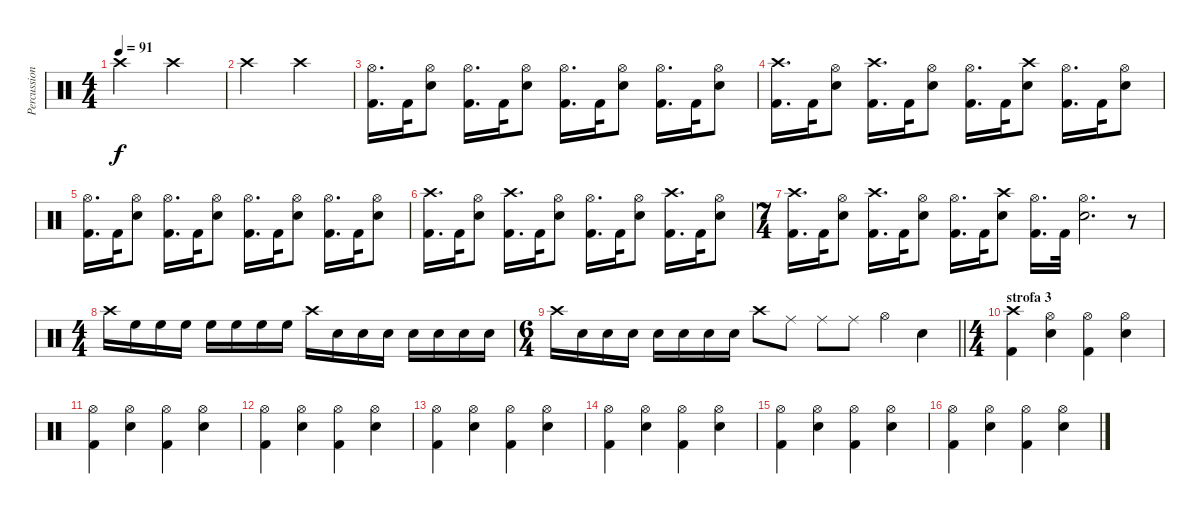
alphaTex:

\track ("Percussion" "Percussion") {instrument percussion}
\staff {score}
\articulation defaults
\ts (4 4)
\tempo 91
\clef neutral
\ks c "Crash high (hit)".2{dy f} "Crash high (hit)".2
|
"Crash high (hit)".2 "Crash high (hit)".2 |
("Hi-Hat (open)" "Kick (hit) 2").16{d} "Kick (hit) 2".32 ("Hi-Hat (open)" "Snare (hit) 2").8 ("Hi-Hat (open)" "Kick (hit) 2").16{d} "Kick (hit) 2".32 ("Hi-Hat (open)" "Snare (hit) 2").8 ("Hi-Hat (open)" "Kick (hit) 2").16{d} "Kick (hit) 2".32 ("Hi-Hat (open)" "Snare (hit) 2").8 ("Hi-Hat (open)" "Kick (hit) 2").16{d} "Kick (hit) 2".32 ("Hi-Hat (open)" "Snare (hit) 2").8 |
("Crash high (hit)" "Kick (hit) 2").16{d} "Kick (hit) 2".32 ("Hi-Hat (open)" "Snare (hit) 2").8 ("Crash high (hit)" "Kick (hit) 2").16{d} "Kick (hit) 2".32 ("Hi-Hat (open)" "Snare (hit) 2").8 ("Hi-Hat (open)" "Kick (hit) 2").16{d} "Kick (hit) 2".32 ("Crash high (hit)" "Snare (hit) 2").8 ("Hi-Hat (open)" "Kick (hit) 2").16{d} "Kick (hit) 2".32 ("Hi-Hat (open)" "Snare (hit) 2").8 |
("Hi-Hat (open)" "Kick (hit) 2").16{d} "Kick (hit) 2".32 ("Hi-Hat (open)" "Snare (hit) 2").8 ("Hi-Hat (open)" "Kick (hit) 2").16{d} "Kick (hit) 2".32 ("Hi-Hat (open)" "Snare (hit) 2").8 ("Hi-Hat (open)" "Kick (hit) 2").16{d} "Kick (hit) 2".32 ("Hi-Hat (open)" "Snare (hit) 2").8 ("Hi-Hat (open)" "Kick (hit) 2").16{d} "Kick (hit) 2".32 ("Hi-Hat (open)" "Snare (hit) 2").8 |
("Crash high (hit)" "Kick (hit) 2").16{d} "Kick (hit) 2".32 ("Hi-Hat (open)" "Snare (hit) 2").8 ("Crash high (hit)" "Kick (hit) 2").16{d} "Kick (hit) 2".32 ("Hi-Hat (open)" "Snare (hit) 2").8 ("Hi-Hat (open)" "Kick (hit) 2").16{d} "Kick (hit) 2".32 ("Hi-Hat (open)" "Snare (hit) 2").8 ("Crash high (hit)" "Kick (hit) 2").16{d} "Kick (hit) 2".32 ("Hi-Hat (open)" "Snare (hit) 2").8 |
\ts (7 4)
("Crash high (hit)" "Kick (hit) 2").16{d} "Kick (hit) 2".32 ("Hi-Hat (open)" "Snare (hit) 2").8 ("Crash high (hit)" "Kick (hit) 2").16{d} "Kick (hit) 2".32 ("Hi-Hat (open)" "Snare (hit) 2").8 ("Hi-Hat (open)" "Kick (hit) 2").16{d} "Kick (hit) 2".32 ("Crash high (hit)" "Snare (hit) 2").8 ("Hi-Hat (open)" "Kick (hit) 2").16{d} "Kick (hit) 2".32 ("Hi-Hat (open)" "Snare (hit) 2").2{d} r.8 |
\ts (4 4)
"Crash high (hit)".16 "High Floor Tom (hit)".16 "High Floor Tom (hit)".16 "High Floor Tom (hit)".16 "High Floor Tom (hit)".16 "High Floor Tom (hit)".16 "High Floor Tom (hit)".16 "High Floor Tom (hit)".16 "Crash high (hit)".16 "Snare (hit) 2".16 "Snare (hit) 2".16 "Snare (hit) 2".16 "Snare (hit) 2".16 "Snare (hit) 2".16 "Snare (hit) 2".16 "Snare (hit) 2".16 |
\ts (6 4)
\barLineRight lightlight "Crash high (hit)".16 "Snare (hit) 2".16 "Snare (hit) 2".16 "Snare (hit) 2".16 "Snare (hit) 2".16 "Snare (hit) 2".16 "Snare (hit) 2".16 "Snare (hit) 2".16 "Crash high (hit)".8 "Ride (middle)".8 "Ride (middle)".8 "Ride (middle)".8 "Hi-Hat (open)".4 "Snare (hit) 2".4
|
\ts (4 4)
\section ("" "strofa 3")
("Crash high (hit)" "Kick (hit) 2").4 ("Snare (hit) 2" "Hi-Hat (open)").4 ("Hi-Hat (open)" "Kick (hit) 2").4 ("Hi-Hat (open)" "Snare (hit) 2").4 |
("Hi-Hat (open)" "Kick (hit) 2").4 ("Snare (hit) 2" "Hi-Hat (open)").4 ("Hi-Hat (open)" "Kick (hit) 2").4 ("Hi-Hat (open)" "Snare (hit) 2").4 |
("Hi-Hat (open)" "Kick (hit) 2").4 ("Snare (hit) 2" "Hi-Hat (open)").4 ("Hi-Hat (open)" "Kick (hit) 2").4 ("Hi-Hat (open)" "Snare (hit) 2").4 |
("Hi-Hat (open)" "Kick (hit) 2").4 ("Snare (hit) 2" "Hi-Hat (open)").4 ("Hi-Hat (open)" "Kick (hit) 2").4 ("Hi-Hat (open)" "Snare (hit) 2").4 |
("Hi-Hat (open)" "Kick (hit) 2").4 ("Snare (hit) 2" "Hi-Hat (open)").4 ("Hi-Hat (open)" "Kick (hit) 2").4 ("Hi-Hat (open)" "Snare (hit) 2").4 |
("Hi-Hat (open)" "Kick (hit) 2").4 ("Snare (hit) 2" "Hi-Hat (open)").4 ("Hi-Hat (open)" "Kick (hit) 2").4 ("Hi-Hat (open)" "Snare (hit) 2").4 |
("Hi-Hat (open)" "Kick (hit) 2").4 ("Snare (hit) 2" "Hi-Hat (open)").4 ("Hi-Hat (open)" "Kick (hit) 2").4 ("Hi-Hat (open)" "Snare (hit) 2").4
